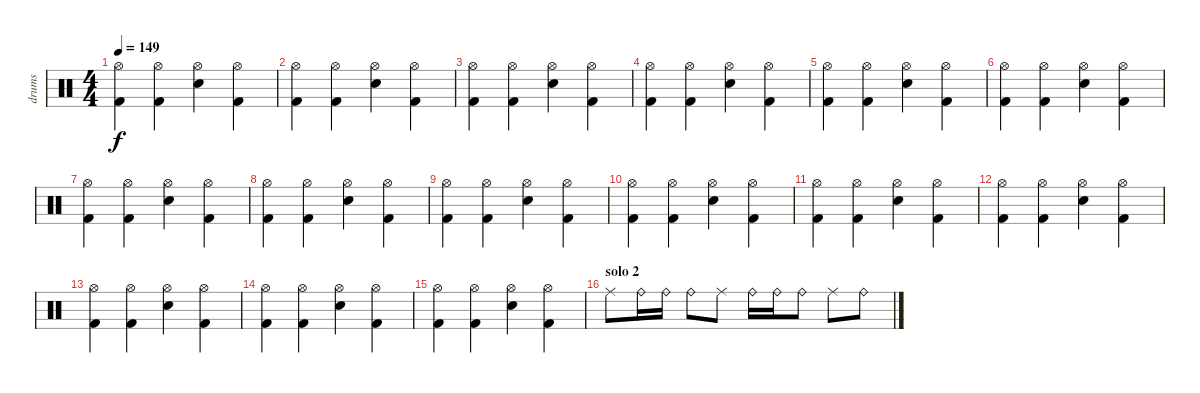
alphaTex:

\track ("drums" "drums") {instrument percussion}
\staff {score}
\articulation defaults
\ts (4 4)
\tempo 149
\clef neutral
\ks c
("Kick (hit) 2" "Hi-Hat (open)").4{dy f} ("Kick (hit) 2" "Hi-Hat (open)").4 ("Electric Snare (hit)" "Hi-Hat (open)").4 ("Kick (hit) 2" "Hi-Hat (open)").4 |
("Kick (hit) 2" "Hi-Hat (open)").4 ("Kick (hit) 2" "Hi-Hat (open)").4 ("Electric Snare (hit)" "Hi-Hat (open)").4 ("Kick (hit) 2" "Hi-Hat (open)").4 |
("Kick (hit) 2" "Hi-Hat (open)").4 ("Kick (hit) 2" "Hi-Hat (open)").4 ("Electric Snare (hit)" "Hi-Hat (open)").4 ("Kick (hit) 2" "Hi-Hat (open)").4 |
("Kick (hit) 2" "Hi-Hat (open)").4 ("Kick (hit) 2" "Hi-Hat (open)").4 ("Electric Snare (hit)" "Hi-Hat (open)").4 ("Kick (hit) 2" "Hi-Hat (open)").4 |
("Kick (hit) 2" "Hi-Hat (open)").4 ("Kick (hit) 2" "Hi-Hat (open)").4 ("Electric Snare (hit)" "Hi-Hat (open)").4 ("Kick (hit) 2" "Hi-Hat (open)").4 |
("Kick (hit) 2" "Hi-Hat (open)").4 ("Kick (hit) 2" "Hi-Hat (open)").4 ("Electric Snare (hit)" "Hi-Hat (open)").4 ("Kick (hit) 2" "Hi-Hat (open)").4 |
("Kick (hit) 2" "Hi-Hat (open)").4 ("Kick (hit) 2" "Hi-Hat (open)").4 ("Electric Snare (hit)" "Hi-Hat (open)").4 ("Kick (hit) 2" "Hi-Hat (open)").4 |
("Kick (hit) 2" "Hi-Hat (open)").4 ("Kick (hit) 2" "Hi-Hat (open)").4 ("Electric Snare (hit)" "Hi-Hat (open)").4 ("Kick (hit) 2" "Hi-Hat (open)").4 |
("Kick (hit) 2" "Hi-Hat (open)").4 ("Kick (hit) 2" "Hi-Hat (open)").4 ("Electric Snare (hit)" "Hi-Hat (open)").4 ("Kick (hit) 2" "Hi-Hat (open)").4 |
("Kick (hit) 2" "Hi-Hat (open)").4 ("Kick (hit) 2" "Hi-Hat (open)").4 ("Electric Snare (hit)" "Hi-Hat (open)").4 ("Kick (hit) 2" "Hi-Hat (open)").4 |
("Kick (hit) 2" "Hi-Hat (open)").4 ("Kick (hit) 2" "Hi-Hat (open)").4 ("Electric Snare (hit)" "Hi-Hat (open)").4 ("Kick (hit) 2" "Hi-Hat (open)").4 |
("Kick (hit) 2" "Hi-Hat (open)").4 ("Kick (hit) 2" "Hi-Hat (open)").4 ("Electric Snare (hit)" "Hi-Hat (open)").4 ("Kick (hit) 2" "Hi-Hat (open)").4 |
("Kick (hit) 2" "Hi-Hat (open)").4 ("Kick (hit) 2" "Hi-Hat (open)").4 ("Electric Snare (hit)" "Hi-Hat (open)").4 ("Kick (hit) 2" "Hi-Hat (open)").4 |
("Kick (hit) 2" "Hi-Hat (open)").4 ("Kick (hit) 2" "Hi-Hat (open)").4 ("Electric Snare (hit)" "Hi-Hat (open)").4 ("Kick (hit) 2" "Hi-Hat (open)").4 |
("Kick (hit) 2" "Hi-Hat (open)").4 ("Kick (hit) 2" "Hi-Hat (open)").4 ("Electric Snare (hit)" "Hi-Hat (open)").4 ("Kick (hit) 2" "Hi-Hat (open)").4 |
\section ("" "solo 2")
"Ride (middle)".8 "Ride (bell)".16 "Ride (bell)".16 "Ride (bell)".8 "Ride (middle)".8 "Ride (bell)".16 "Ride (bell)".16 "Ride (bell)".8 "Ride (middle)".8 "Ride (bell)".8
